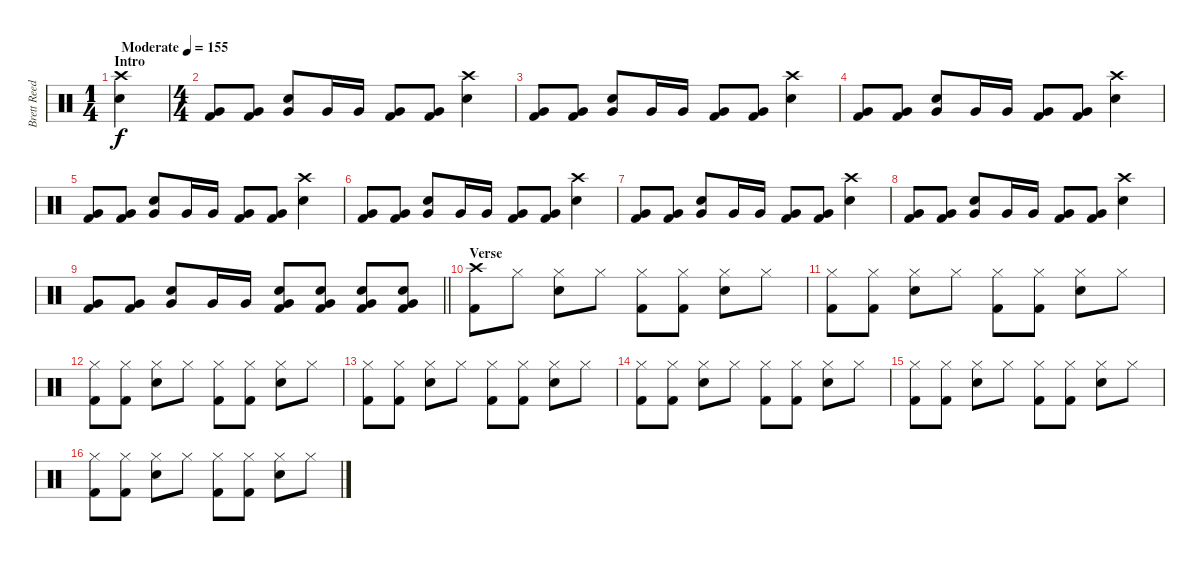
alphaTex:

\track ("Brett Reed" "Brett Reed") {instrument percussion}
\staff {score}
\articulation defaults
\ts (1 4)
\section ("" "Intro")
\tempo (155 "Moderate")
\clef neutral
\ks c
("Crash high (hit)" "Electric Snare (hit)").4{dy f} |
\ts (4 4)
("Very Low Tom (hit)" "Kick (hit) 2").8 ("Very Low Tom (hit)" "Kick (hit) 2").8 ("Very Low Tom (hit)" "Electric Snare (hit)").8 "Very Low Tom (hit)".16 "Very Low Tom (hit)".16 ("Very Low Tom (hit)" "Kick (hit) 2").8 ("Very Low Tom (hit)" "Kick (hit) 2").8 ("Crash high (hit)" "Electric Snare (hit)").4 |
("Very Low Tom (hit)" "Kick (hit) 2").8 ("Very Low Tom (hit)" "Kick (hit) 2").8 ("Very Low Tom (hit)" "Electric Snare (hit)").8 "Very Low Tom (hit)".16 "Very Low Tom (hit)".16 ("Very Low Tom (hit)" "Kick (hit) 2").8 ("Very Low Tom (hit)" "Kick (hit) 2").8 ("Crash high (hit)" "Electric Snare (hit)").4 |
("Very Low Tom (hit)" "Kick (hit) 2").8 ("Very Low Tom (hit)" "Kick (hit) 2").8 ("Very Low Tom (hit)" "Electric Snare (hit)").8 "Very Low Tom (hit)".16 "Very Low Tom (hit)".16 ("Very Low Tom (hit)" "Kick (hit) 2").8 ("Very Low Tom (hit)" "Kick (hit) 2").8 ("Crash high (hit)" "Electric Snare (hit)").4 |
("Very Low Tom (hit)" "Kick (hit) 2").8 ("Very Low Tom (hit)" "Kick (hit) 2").8 ("Very Low Tom (hit)" "Electric Snare (hit)").8 "Very Low Tom (hit)".16 "Very Low Tom (hit)".16 ("Very Low Tom (hit)" "Kick (hit) 2").8 ("Very Low Tom (hit)" "Kick (hit) 2").8 ("Crash high (hit)" "Electric Snare (hit)").4 |
("Very Low Tom (hit)" "Kick (hit) 2").8 ("Very Low Tom (hit)" "Kick (hit) 2").8 ("Very Low Tom (hit)" "Electric Snare (hit)").8 "Very Low Tom (hit)".16 "Very Low Tom (hit)".16 ("Very Low Tom (hit)" "Kick (hit) 2").8 ("Very Low Tom (hit)" "Kick (hit) 2").8 ("Crash high (hit)" "Electric Snare (hit)").4 |
("Very Low Tom (hit)" "Kick (hit) 2").8 ("Very Low Tom (hit)" "Kick (hit) 2").8 ("Very Low Tom (hit)" "Electric Snare (hit)").8 "Very Low Tom (hit)".16 "Very Low Tom (hit)".16 ("Very Low Tom (hit)" "Kick (hit) 2").8 ("Very Low Tom (hit)" "Kick (hit) 2").8 ("Crash high (hit)" "Electric Snare (hit)").4 |
("Very Low Tom (hit)" "Kick (hit) 2").8 ("Very Low Tom (hit)" "Kick (hit) 2").8 ("Very Low Tom (hit)" "Electric Snare (hit)").8 "Very Low Tom (hit)".16 "Very Low Tom (hit)".16 ("Very Low Tom (hit)" "Kick (hit) 2").8 ("Very Low Tom (hit)" "Kick (hit) 2").8 ("Crash high (hit)" "Electric Snare (hit)").4 |
\barLineRight lightlight
("Very Low Tom (hit)" "Kick (hit) 2").8 ("Very Low Tom (hit)" "Kick (hit) 2").8 ("Very Low Tom (hit)" "Electric Snare (hit)").8 "Very Low Tom (hit)".16 "Very Low Tom (hit)".16 ("Very Low Tom (hit)" "Electric Snare (hit)" "Kick (hit) 2").8 ("Very Low Tom (hit)" "Electric Snare (hit)" "Kick (hit) 2").8 ("Very Low Tom (hit)" "Electric Snare (hit)" "Kick (hit) 2").8 ("Very Low Tom (hit)" "Electric Snare (hit)" "Kick (hit) 2").8 |
\section ("" "Verse")
("Crash high (hit)" "Kick (hit) 2").8 "Hi-Hat (closed)".8 ("Hi-Hat (closed)" "Electric Snare (hit)").8 "Hi-Hat (closed)".8 ("Hi-Hat (closed)" "Kick (hit) 2").8 ("Hi-Hat (closed)" "Kick (hit) 2").8 ("Hi-Hat (closed)" "Electric Snare (hit)").8 "Hi-Hat (closed)".8 |
("Hi-Hat (closed)" "Kick (hit) 2").8 ("Hi-Hat (closed)" "Kick (hit) 2").8 ("Hi-Hat (closed)" "Electric Snare (hit)").8 "Hi-Hat (closed)".8 ("Hi-Hat (closed)" "Kick (hit) 2").8 ("Hi-Hat (closed)" "Kick (hit) 2").8 ("Hi-Hat (closed)" "Electric Snare (hit)").8 "Hi-Hat (closed)".8 |
("Hi-Hat (closed)" "Kick (hit) 2").8 ("Hi-Hat (closed)" "Kick (hit) 2").8 ("Hi-Hat (closed)" "Electric Snare (hit)").8 "Hi-Hat (closed)".8 ("Hi-Hat (closed)" "Kick (hit) 2").8 ("Hi-Hat (closed)" "Kick (hit) 2").8 ("Hi-Hat (closed)" "Electric Snare (hit)").8 "Hi-Hat (closed)".8 |
("Hi-Hat (closed)" "Kick (hit) 2").8 ("Hi-Hat (closed)" "Kick (hit) 2").8 ("Hi-Hat (closed)" "Electric Snare (hit)").8 "Hi-Hat (closed)".8 ("Hi-Hat (closed)" "Kick (hit) 2").8 ("Hi-Hat (closed)" "Kick (hit) 2").8 ("Hi-Hat (closed)" "Electric Snare (hit)").8 "Hi-Hat (closed)".8 |
("Hi-Hat (closed)" "Kick (hit) 2").8 ("Hi-Hat (closed)" "Kick (hit) 2").8 ("Hi-Hat (closed)" "Electric Snare (hit)").8 "Hi-Hat (closed)".8 ("Hi-Hat (closed)" "Kick (hit) 2").8 ("Hi-Hat (closed)" "Kick (hit) 2").8 ("Hi-Hat (closed)" "Electric Snare (hit)").8 "Hi-Hat (closed)".8 |
("Hi-Hat (closed)" "Kick (hit) 2").8 ("Hi-Hat (closed)" "Kick (hit) 2").8 ("Hi-Hat (closed)" "Electric Snare (hit)").8 "Hi-Hat (closed)".8 ("Hi-Hat (closed)" "Kick (hit) 2").8 ("Hi-Hat (closed)" "Kick (hit) 2").8 ("Hi-Hat (closed)" "Electric Snare (hit)").8 "Hi-Hat (closed)".8 |
("Hi-Hat (closed)" "Kick (hit) 2").8 ("Hi-Hat (closed)" "Kick (hit) 2").8 ("Hi-Hat (closed)" "Electric Snare (hit)").8 "Hi-Hat (closed)".8 ("Hi-Hat (closed)" "Kick (hit) 2").8 ("Hi-Hat (closed)" "Kick (hit) 2").8 ("Hi-Hat (closed)" "Electric Snare (hit)").8 "Hi-Hat (closed)".8
